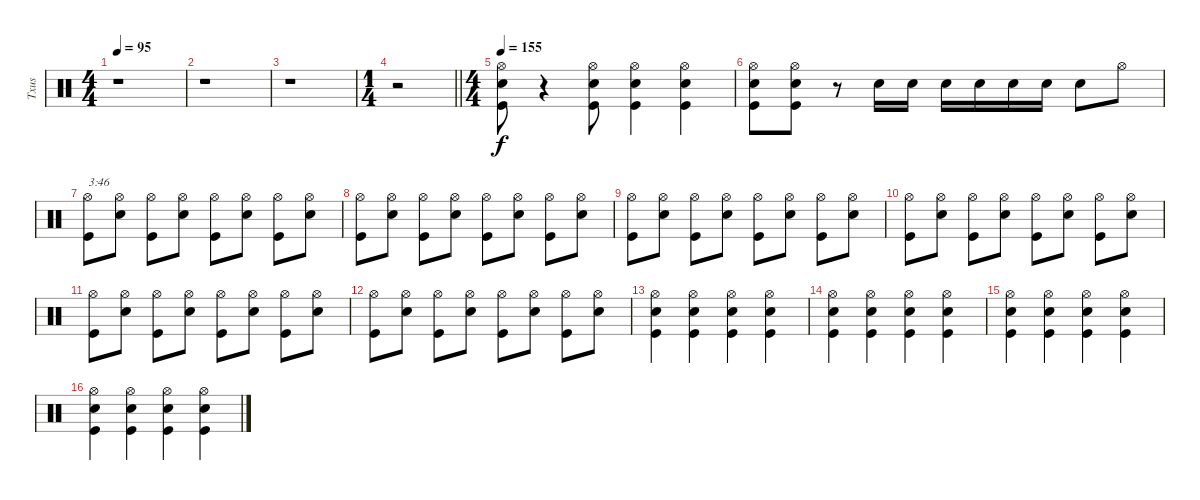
\track ("Txus" "Txus") {instrument percussion}
\staff {score}
\articulation defaults
\ts (4 4)
\tempo 95
\clef neutral
\ks c
r.1{dy f} |
r.1 |
r.1 |
\ts (1 4)
\barLineRight lightlight
r.2 |
\ts (4 4)
\tempo 155
("Kick (hit)" "Snare (hit) 2" "Hi-Hat (open)").8 r.4 ("Kick (hit)" "Snare (hit) 2" "Hi-Hat (open)").8 ("Kick (hit)" "Snare (hit) 2" "Hi-Hat (open)").4 ("Kick (hit)" "Snare (hit) 2" "Hi-Hat (open)").4 |
("Kick (hit)" "Snare (hit) 2" "Hi-Hat (open)").8 ("Kick (hit)" "Snare (hit) 2" "Hi-Hat (open)").8 r.8 "Snare (hit) 2".16 "Snare (hit) 2".16 "Snare (hit) 2".16 "Snare (hit) 2".16 "Snare (hit) 2".16 "Snare (hit) 2".16 "Snare (hit) 2".8 "Hi-Hat (open)".8 |
("Kick (hit)" "Hi-Hat (open)").8{txt "3:46"} ("Snare (hit) 2" "Hi-Hat (open)").8 ("Kick (hit)" "Hi-Hat (open)").8 ("Snare (hit) 2" "Hi-Hat (open)").8 ("Kick (hit)" "Hi-Hat (open)").8 ("Snare (hit) 2" "Hi-Hat (open)").8 ("Kick (hit)" "Hi-Hat (open)").8 ("Snare (hit) 2" "Hi-Hat (open)").8 |
("Kick (hit)" "Hi-Hat (open)").8 ("Snare (hit) 2" "Hi-Hat (open)").8 ("Kick (hit)" "Hi-Hat (open)").8 ("Snare (hit) 2" "Hi-Hat (open)").8 ("Kick (hit)" "Hi-Hat (open)").8 ("Snare (hit) 2" "Hi-Hat (open)").8 ("Kick (hit)" "Hi-Hat (open)").8 ("Snare (hit) 2" "Hi-Hat (open)").8 |
("Kick (hit)" "Hi-Hat (open)").8 ("Snare (hit) 2" "Hi-Hat (open)").8 ("Kick (hit)" "Hi-Hat (open)").8 ("Snare (hit) 2" "Hi-Hat (open)").8 ("Kick (hit)" "Hi-Hat (open)").8 ("Snare (hit) 2" "Hi-Hat (open)").8 ("Kick (hit)" "Hi-Hat (open)").8 ("Snare (hit) 2" "Hi-Hat (open)").8 |
("Kick (hit)" "Hi-Hat (open)").8 ("Snare (hit) 2" "Hi-Hat (open)").8 ("Kick (hit)" "Hi-Hat (open)").8 ("Snare (hit) 2" "Hi-Hat (open)").8 ("Kick (hit)" "Hi-Hat (open)").8 ("Snare (hit) 2" "Hi-Hat (open)").8 ("Kick (hit)" "Hi-Hat (open)").8 ("Snare (hit) 2" "Hi-Hat (open)").8 |
("Kick (hit)" "Hi-Hat (open)").8 ("Snare (hit) 2" "Hi-Hat (open)").8 ("Kick (hit)" "Hi-Hat (open)").8 ("Snare (hit) 2" "Hi-Hat (open)").8 ("Kick (hit)" "Hi-Hat (open)").8 ("Snare (hit) 2" "Hi-Hat (open)").8 ("Kick (hit)" "Hi-Hat (open)").8 ("Snare (hit) 2" "Hi-Hat (open)").8 |
("Kick (hit)" "Hi-Hat (open)").8 ("Snare (hit) 2" "Hi-Hat (open)").8 ("Kick (hit)" "Hi-Hat (open)").8 ("Snare (hit) 2" "Hi-Hat (open)").8 ("Kick (hit)" "Hi-Hat (open)").8 ("Snare (hit) 2" "Hi-Hat (open)").8 ("Kick (hit)" "Hi-Hat (open)").8 ("Snare (hit) 2" "Hi-Hat (open)").8 |
("Kick (hit)" "Snare (hit) 2" "Hi-Hat (open)").4 ("Kick (hit)" "Snare (hit) 2" "Hi-Hat (open)").4 ("Kick (hit)" "Snare (hit) 2" "Hi-Hat (open)").4 ("Kick (hit)" "Snare (hit) 2" "Hi-Hat (open)").4 |
("Kick (hit)" "Snare (hit) 2" "Hi-Hat (open)").4 ("Kick (hit)" "Snare (hit) 2" "Hi-Hat (open)").4 ("Kick (hit)" "Snare (hit) 2" "Hi-Hat (open)").4 ("Kick (hit)" "Snare (hit) 2" "Hi-Hat (open)").4 |
("Kick (hit)" "Snare (hit) 2" "Hi-Hat (open)").4 ("Kick (hit)" "Snare (hit) 2" "Hi-Hat (open)").4 ("Kick (hit)" "Snare (hit) 2" "Hi-Hat (open)").4 ("Kick (hit)" "Snare (hit) 2" "Hi-Hat (open)").4 |
("Kick (hit)" "Snare (hit) 2" "Hi-Hat (open)").4 ("Kick (hit)" "Snare (hit) 2" "Hi-Hat (open)").4 ("Kick (hit)" "Snare (hit) 2" "Hi-Hat (open)").4 ("Kick (hit)" "Snare (hit) 2" "Hi-Hat (open)").4
